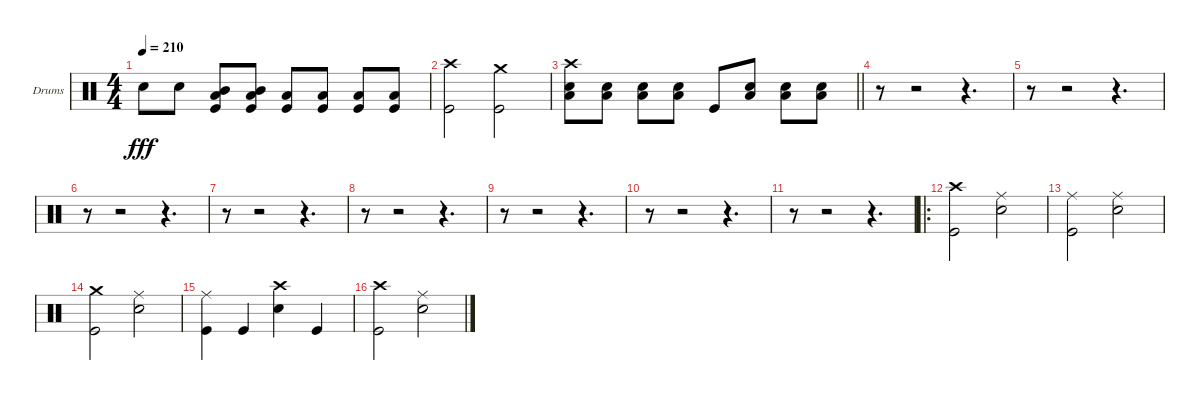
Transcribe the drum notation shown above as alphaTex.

\bracketExtendMode groupsimilarinstruments
\firstSystemTrackNameOrientation horizontal
\otherSystemsTrackNameOrientation horizontal
\track ("Drumkit" "Drums") {instrument percussion}
\staff {score}
\articulation defaults
\ts (4 4)
\tempo 210
\clef neutral
\ks c "Snare (hit) 2".8{dy fff} "Snare (hit) 2".8
("Mid Tom (hit)" "Low Tom (hit)" "Kick (hit)").8 ("Mid Tom (hit)" "Low Tom (hit)" "Kick (hit)").8 ("Low Tom (hit)" "Kick (hit)").8 ("Low Tom (hit)" "Kick (hit)").8 ("Low Tom (hit)" "Kick (hit)").8 ("Low Tom (hit)" "Kick (hit)").8 |
("Crash high (hit)" "Kick (hit)").2 ("Crash medium (hit)" "Kick (hit)").2 |
\barLineRight lightlight
("Crash high (hit)" "Snare (hit) 2" "Low Tom (hit)").8 ("Snare (hit) 2" "Low Tom (hit)").8 ("Snare (hit) 2" "Low Tom (hit)").8 ("Snare (hit) 2" "Low Tom (hit)").8 "Kick (hit)".8 ("Snare (hit) 2" "Low Tom (hit)").8 ("Snare (hit) 2" "Low Tom (hit)").8 ("Snare (hit) 2" "Low Tom (hit)").8 |
r.8 r.2 r.4{d} |
r.8 r.2 r.4{d} |
r.8 r.2 r.4{d} |
r.8 r.2 r.4{d} |
r.8 r.2 r.4{d} |
r.8 r.2 r.4{d} |
r.8 r.2 r.4{d} |
r.8 r.2 r.4{d} |
\ro
("Crash high (hit)" "Kick (hit)").2 ("Ride (middle)" "Snare (hit) 2").2 |
("Ride (middle)" "Kick (hit)").2 ("Ride (middle)" "Snare (hit) 2").2 |
("Crash medium (hit)" "Kick (hit)").2 ("Ride (middle)" "Snare (hit) 2").2 |
("Ride (middle)" "Kick (hit)").4 "Kick (hit)".4 ("Crash high (hit)" "Snare (hit) 2").4 "Kick (hit)".4 |
("Crash high (hit)" "Kick (hit)").2 ("Ride (middle)" "Snare (hit) 2").2
